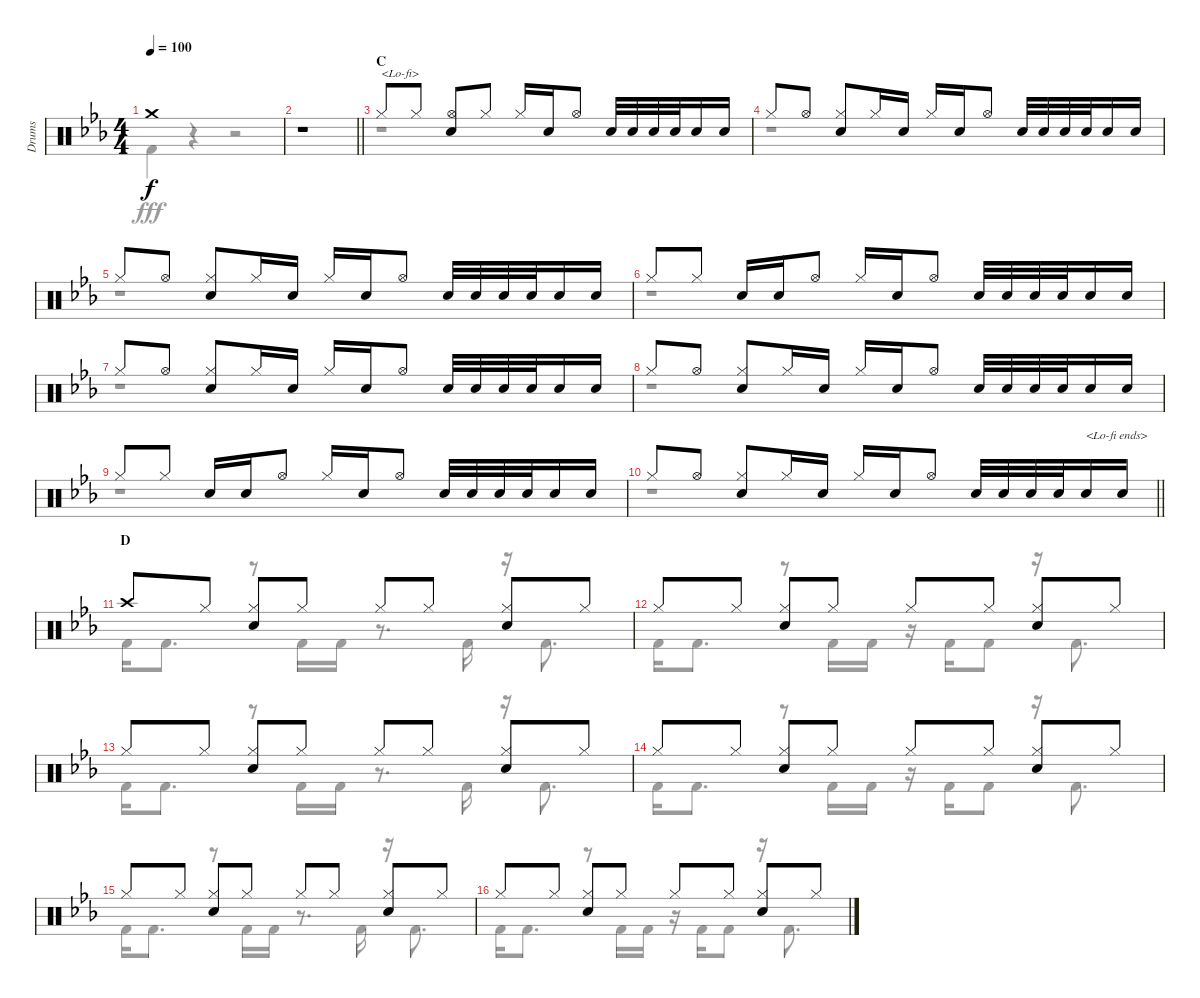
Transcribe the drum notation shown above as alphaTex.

\track ("Drums" "Drums") {instrument percussion}
\staff {score}
\articulation defaults
\voice
\ts (4 4)
\tempo 100
\clef neutral
\ks eb "Crash medium (hit)".1{dy f}
|
\barLineRight lightlight
r.1 |
\section ("" "C")
"Hi-Hat (closed)".8{txt "<Lo-fi>"} "Hi-Hat (closed)".8 ("Hi-Hat (open)" "Snare (hit) 2").8 "Hi-Hat (closed)".8 "Hi-Hat (closed)".16 "Snare (hit) 2".16 "Hi-Hat (open)".8 "Snare (hit) 2".32 "Snare (hit) 2".32 "Snare (hit) 2".32 "Snare (hit) 2".32 "Snare (hit) 2".16 "Snare (hit) 2".16 |
"Hi-Hat (closed)".8 "Hi-Hat (open)".8 ("Hi-Hat (closed)" "Snare (hit) 2").8 "Hi-Hat (closed)".16 "Snare (hit) 2".16 "Hi-Hat (closed)".16 "Snare (hit) 2".16 "Hi-Hat (open)".8 "Snare (hit) 2".32 "Snare (hit) 2".32 "Snare (hit) 2".32 "Snare (hit) 2".32 "Snare (hit) 2".16 "Snare (hit) 2".16 |
"Hi-Hat (closed)".8 "Hi-Hat (open)".8 ("Hi-Hat (closed)" "Snare (hit) 2").8 "Hi-Hat (closed)".16 "Snare (hit) 2".16 "Hi-Hat (closed)".16 "Snare (hit) 2".16 "Hi-Hat (open)".8 "Snare (hit) 2".32 "Snare (hit) 2".32 "Snare (hit) 2".32 "Snare (hit) 2".32 "Snare (hit) 2".16 "Snare (hit) 2".16 |
"Hi-Hat (closed)".8 "Hi-Hat (closed)".8 "Snare (hit) 2".16 "Snare (hit) 2".16 "Hi-Hat (open)".8 "Hi-Hat (closed)".16 "Snare (hit) 2".16 "Hi-Hat (open)".8 "Snare (hit) 2".32 "Snare (hit) 2".32 "Snare (hit) 2".32 "Snare (hit) 2".32 "Snare (hit) 2".16 "Snare (hit) 2".16 |
"Hi-Hat (closed)".8 "Hi-Hat (open)".8 ("Hi-Hat (closed)" "Snare (hit) 2").8 "Hi-Hat (closed)".16 "Snare (hit) 2".16 "Hi-Hat (closed)".16 "Snare (hit) 2".16 "Hi-Hat (open)".8 "Snare (hit) 2".32 "Snare (hit) 2".32 "Snare (hit) 2".32 "Snare (hit) 2".32 "Snare (hit) 2".16 "Snare (hit) 2".16 |
"Hi-Hat (closed)".8 "Hi-Hat (open)".8 ("Hi-Hat (closed)" "Snare (hit) 2").8 "Hi-Hat (closed)".16 "Snare (hit) 2".16 "Hi-Hat (closed)".16 "Snare (hit) 2".16 "Hi-Hat (open)".8 "Snare (hit) 2".32 "Snare (hit) 2".32 "Snare (hit) 2".32 "Snare (hit) 2".32 "Snare (hit) 2".16 "Snare (hit) 2".16 |
"Hi-Hat (closed)".8 "Hi-Hat (closed)".8 "Snare (hit) 2".16 "Snare (hit) 2".16 "Hi-Hat (open)".8 "Hi-Hat (closed)".16 "Snare (hit) 2".16 "Hi-Hat (open)".8 "Snare (hit) 2".32 "Snare (hit) 2".32 "Snare (hit) 2".32 "Snare (hit) 2".32 "Snare (hit) 2".16 "Snare (hit) 2".16 |
\barLineRight lightlight "Hi-Hat (closed)".8 "Hi-Hat (open)".8
("Hi-Hat (closed)" "Snare (hit) 2").8 "Hi-Hat (closed)".16 "Snare (hit) 2".16 "Hi-Hat (closed)".16 "Snare (hit) 2".16 "Hi-Hat (open)".8 "Snare (hit) 2".32 "Snare (hit) 2".32 "Snare (hit) 2".32 "Snare (hit) 2".32 "Snare (hit) 2".16{txt "<Lo-fi ends>"} "Snare (hit) 2".16 |
\section ("" "D")
"Crash high (hit)".8 "Hi-Hat (closed)".8 ("Hi-Hat (closed)" "Snare (hit) 2").8 "Hi-Hat (closed)".8 "Hi-Hat (closed)".8 "Hi-Hat (closed)".8 ("Hi-Hat (closed)" "Snare (hit) 2").8 "Hi-Hat (closed)".8 |
"Hi-Hat (closed)".8 "Hi-Hat (closed)".8 ("Hi-Hat (closed)" "Snare (hit) 2").8 "Hi-Hat (closed)".8 "Hi-Hat (closed)".8 "Hi-Hat (closed)".8 ("Hi-Hat (closed)" "Snare (hit) 2").8 "Hi-Hat (closed)".8 |
"Hi-Hat (closed)".8 "Hi-Hat (closed)".8 ("Hi-Hat (closed)" "Snare (hit) 2").8 "Hi-Hat (closed)".8 "Hi-Hat (closed)".8 "Hi-Hat (closed)".8 ("Hi-Hat (closed)" "Snare (hit) 2").8 "Hi-Hat (closed)".8 |
"Hi-Hat (closed)".8 "Hi-Hat (closed)".8 ("Hi-Hat (closed)" "Snare (hit) 2").8 "Hi-Hat (closed)".8 "Hi-Hat (closed)".8 "Hi-Hat (closed)".8 ("Hi-Hat (closed)" "Snare (hit) 2").8 "Hi-Hat (closed)".8 |
"Hi-Hat (closed)".8 "Hi-Hat (closed)".8 ("Hi-Hat (closed)" "Snare (hit) 2").8 "Hi-Hat (closed)".8 "Hi-Hat (closed)".8 "Hi-Hat (closed)".8 ("Hi-Hat (closed)" "Snare (hit) 2").8 "Hi-Hat (closed)".8 |
"Hi-Hat (closed)".8 "Hi-Hat (closed)".8 ("Hi-Hat (closed)" "Snare (hit) 2").8 "Hi-Hat (closed)".8 "Hi-Hat (closed)".8 "Hi-Hat (closed)".8 ("Hi-Hat (closed)" "Snare (hit) 2").8 "Hi-Hat (closed)".8
\voice
\clef neutral
\ottava regular
\simile none
\ks eb "Kick (hit) 2".4{dy fff}
r.4 r.2 |
\barLineRight lightlight
r.1 |
r.1 |
r.1 |
r.1 |
r.1 |
r.1 |
r.1 |
r.1 |
\barLineRight lightlight
r.1 |
"Kick (hit) 2".16 "Kick (hit) 2".8{d} r.8 "Kick (hit) 2".16 "Kick (hit) 2".16 r.8{d} "Kick (hit) 2".16 r.16 "Kick (hit) 2".8{d} |
"Kick (hit) 2".16 "Kick (hit) 2".8{d} r.8 "Kick (hit) 2".16 "Kick (hit) 2".16 r.16 "Kick (hit) 2".16 "Kick (hit) 2".8 r.16 "Kick (hit) 2".8{d} |
"Kick (hit) 2".16 "Kick (hit) 2".8{d} r.8 "Kick (hit) 2".16 "Kick (hit) 2".16 r.8{d} "Kick (hit) 2".16 r.16 "Kick (hit) 2".8{d} |
"Kick (hit) 2".16 "Kick (hit) 2".8{d} r.8 "Kick (hit) 2".16 "Kick (hit) 2".16 r.16 "Kick (hit) 2".16 "Kick (hit) 2".8 r.16 "Kick (hit) 2".8{d} |
"Kick (hit) 2".16 "Kick (hit) 2".8{d} r.8 "Kick (hit) 2".16 "Kick (hit) 2".16 r.8{d} "Kick (hit) 2".16 r.16 "Kick (hit) 2".8{d} |
"Kick (hit) 2".16 "Kick (hit) 2".8{d} r.8 "Kick (hit) 2".16 "Kick (hit) 2".16 r.16 "Kick (hit) 2".16 "Kick (hit) 2".8 r.16 "Kick (hit) 2".8{d}
